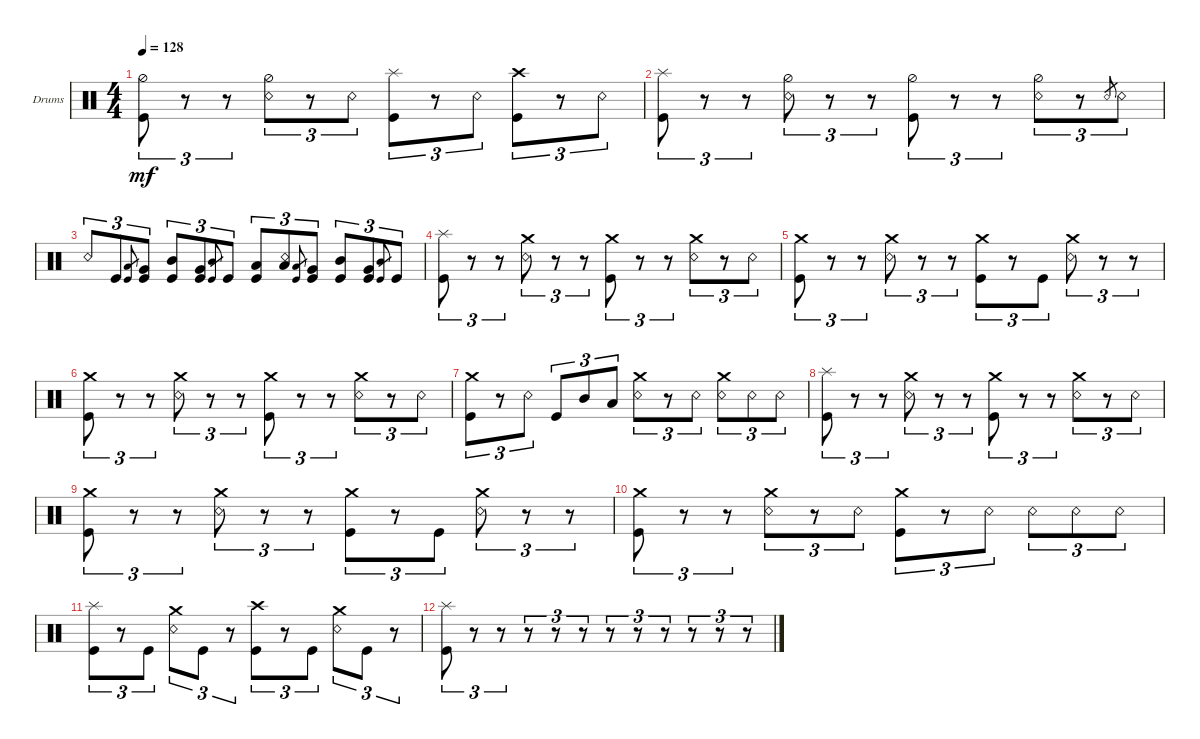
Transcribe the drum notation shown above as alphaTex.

\defaultSystemsLayout 4
\bracketExtendMode groupsimilarinstruments
\firstSystemTrackNameOrientation horizontal
\otherSystemsTrackNameOrientation horizontal
\track ("Drumkit" "Drums") {instrument percussion}
\staff {score}
\articulation defaults
\ts (4 4)
\tempo 128
\clef neutral
\ks c
("Kick (hit)" "Hi-Hat (half)").8{tu (3 2) dy mf} r.8{tu (3 2)} r.8{tu (3 2)} ("Snare (rim shot)" "Hi-Hat (half)").8{tu (3 2)} r.8{tu (3 2)} "Snare (rim shot)".8{tu (3 2)} ("Kick (hit)" "Splash (hit)").8{tu (3 2)} r.8{tu (3 2)} "Snare (rim shot)".8{tu (3 2)} ("Kick (hit)" "Crash high (hit)").8{tu (3 2)} r.8{tu (3 2)} "Snare (rim shot)".8{tu (3 2)} |
("Kick (hit)" "Splash (hit)").8{tu (3 2)} r.8{tu (3 2)} r.8{tu (3 2)} ("Snare (rim shot)" "Hi-Hat (half)").8{tu (3 2)} r.8{tu (3 2)} r.8{tu (3 2)} ("Kick (hit)" "Hi-Hat (half)").8{tu (3 2)} r.8{tu (3 2)} r.8{tu (3 2)} ("Snare (rim shot)" "Hi-Hat (half)").8{tu (3 2)} r.8{tu (3 2)} "Snare (rim shot)".8{tu (3 2) gr} "Snare (rim shot)".8{tu (3 2)} |
"Snare (rim shot)".8{tu (3 2)} "Kick (hit)".8{tu (3 2)} ("Low Tom (hit)" "Kick (hit)").8{tu (3 2) gr} ("Very Low Tom (hit)" "Kick (hit)").8{tu (3 2)} ("Mid Tom (hit)" "Kick (hit)").8{tu (3 2)} ("Very Low Tom (hit)" "Kick (hit)").8{tu (3 2)} ("Mid Tom (hit)" "Kick (hit)").8{tu (3 2) gr} "Kick (hit)".8{tu (3 2)} ("Low Tom (hit)" "Kick (hit)").8{tu (3 2)} ("Low Tom (hit)" "Snare (rim shot)").8{tu (3 2)} ("Low Tom (hit)" "Kick (hit)").8{tu (3 2) gr} ("Very Low Tom (hit)" "Kick (hit)").8{tu (3 2)} ("Mid Tom (hit)" "Kick (hit)").8{tu (3 2)} ("Very Low Tom (hit)" "Kick (hit)").8{tu (3 2)} ("Mid Tom (hit)" "Kick (hit)").8{tu (3 2) gr} "Kick (hit)".8{tu (3 2)} |
("Kick (hit)" "Splash (hit)").8{tu (3 2)} r.8{tu (3 2)} r.8{tu (3 2)} ("Snare (rim shot)" "Crash medium (hit)").8{tu (3 2)} r.8{tu (3 2)} r.8{tu (3 2)} ("Kick (hit)" "Crash medium (hit)").8{tu (3 2)} r.8{tu (3 2)} r.8{tu (3 2)} ("Snare (rim shot)" "Crash medium (hit)").8{tu (3 2)} r.8{tu (3 2)} "Snare (rim shot)".8{tu (3 2)} |
("Kick (hit)" "Crash medium (hit)").8{tu (3 2)} r.8{tu (3 2)} r.8{tu (3 2)} ("Snare (rim shot)" "Crash medium (hit)").8{tu (3 2)} r.8{tu (3 2)} r.8{tu (3 2)} ("Kick (hit)" "Crash medium (hit)").8{tu (3 2)} r.8{tu (3 2)} "Kick (hit)".8{tu (3 2)} ("Snare (rim shot)" "Crash medium (hit)").8{tu (3 2)} r.8{tu (3 2)} r.8{tu (3 2)} |
("Kick (hit)" "Crash medium (hit)").8{tu (3 2)} r.8{tu (3 2)} r.8{tu (3 2)} ("Snare (rim shot)" "Crash medium (hit)").8{tu (3 2)} r.8{tu (3 2)} r.8{tu (3 2)} ("Kick (hit)" "Crash medium (hit)").8{tu (3 2)} r.8{tu (3 2)} r.8{tu (3 2)} ("Snare (rim shot)" "Crash medium (hit)").8{tu (3 2)} r.8{tu (3 2)} "Snare (rim shot)".8{tu (3 2)} |
("Crash medium (hit)" "Kick (hit)").8{tu (3 2)} r.8{tu (3 2)} "Snare (rim shot)".8{tu (3 2)} "Kick (hit)".8{tu (3 2)} "Mid Tom (hit)".8{tu (3 2)} "Low Tom (hit)".8{tu (3 2)} ("Snare (rim shot)" "Crash medium (hit)").8{tu (3 2)} r.8{tu (3 2)} "Snare (rim shot)".8{tu (3 2)} ("Snare (rim shot)" "Crash medium (hit)").8{tu (3 2)} "Snare (rim shot)".8{tu (3 2)} "Snare (rim shot)".8{tu (3 2)} |
("Kick (hit)" "Splash (hit)").8{tu (3 2)} r.8{tu (3 2)} r.8{tu (3 2)} ("Snare (rim shot)" "Crash medium (hit)").8{tu (3 2)} r.8{tu (3 2)} r.8{tu (3 2)} ("Kick (hit)" "Crash medium (hit)").8{tu (3 2)} r.8{tu (3 2)} r.8{tu (3 2)} ("Snare (rim shot)" "Crash medium (hit)").8{tu (3 2)} r.8{tu (3 2)} "Snare (rim shot)".8{tu (3 2)} |
("Kick (hit)" "Crash medium (hit)").8{tu (3 2)} r.8{tu (3 2)} r.8{tu (3 2)} ("Snare (rim shot)" "Crash medium (hit)").8{tu (3 2)} r.8{tu (3 2)} r.8{tu (3 2)} ("Kick (hit)" "Crash medium (hit)").8{tu (3 2)} r.8{tu (3 2)} "Kick (hit)".8{tu (3 2)} ("Snare (rim shot)" "Crash medium (hit)").8{tu (3 2)} r.8{tu (3 2)} r.8{tu (3 2)} |
("Kick (hit)" "Crash medium (hit)").8{tu (3 2)} r.8{tu (3 2)} r.8{tu (3 2)} ("Snare (rim shot)" "Crash medium (hit)").8{tu (3 2)} r.8{tu (3 2)} "Snare (rim shot)".8{tu (3 2)} ("Kick (hit)" "Crash medium (hit)").8{tu (3 2)} r.8{tu (3 2)} "Snare (rim shot)".8{tu (3 2)} "Snare (rim shot)".8{tu (3 2)} "Snare (rim shot)".8{tu (3 2)} "Snare (rim shot)".8{tu (3 2)} |
("Kick (hit)" "Splash (hit)").8{tu (3 2)} r.8{tu (3 2)} "Kick (hit)".8{tu (3 2)} ("Snare (rim shot)" "Crash medium (hit)").8{tu (3 2)} "Kick (hit)".8{tu (3 2)} r.8{tu (3 2)} ("Kick (hit)" "Crash high (hit)").8{tu (3 2)} r.8{tu (3 2)} "Kick (hit)".8{tu (3 2)} ("Snare (rim shot)" "Crash medium (hit)").8{tu (3 2)} "Kick (hit)".8{tu (3 2)} r.8{tu (3 2)} |
("Kick (hit)" "Splash (hit)").8{tu (3 2)} r.8{tu (3 2)} r.8{tu (3 2)} r.8{tu (3 2)} r.8{tu (3 2)} r.8{tu (3 2)} r.8{tu (3 2)} r.8{tu (3 2)} r.8{tu (3 2)} r.8{tu (3 2)} r.8{tu (3 2)} r.8{tu (3 2)}
